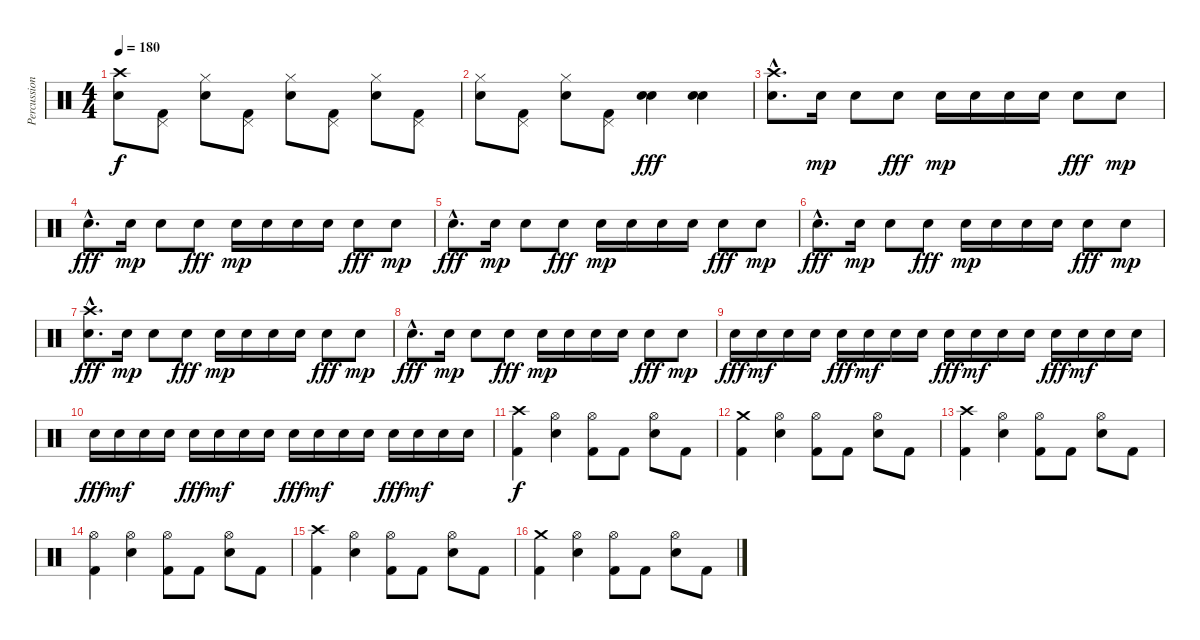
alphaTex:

\track ("Percussion" "Percussion") {instrument percussion}
\staff {score}
\articulation defaults
\ts (4 4)
\tempo 180
\clef neutral
\ks c
("Crash high (hit)" "Snare (hit) 2").8{dy f} ("Pedal Hi-Hat (hit)" "Kick (hit) 2").8 ("Hi-Hat (closed)" "Snare (hit) 2").8 ("Pedal Hi-Hat (hit)" "Kick (hit) 2").8 ("Hi-Hat (closed)" "Snare (hit) 2").8 ("Pedal Hi-Hat (hit)" "Kick (hit) 2").8 ("Hi-Hat (closed)" "Snare (hit) 2").8 ("Pedal Hi-Hat (hit)" "Kick (hit) 2").8 |
("Hi-Hat (closed)" "Snare (hit) 2").8 ("Pedal Hi-Hat (hit)" "Kick (hit) 2").8 ("Hi-Hat (closed)" "Snare (hit) 2").8 ("Pedal Hi-Hat (hit)" "Kick (hit) 2").8 ("Snare (hit) 2" "Electric Snare (hit)").4{dy fff} ("Snare (hit) 2" "Electric Snare (hit)").4 |
("Crash high (hit)"{hac} "Electric Snare (hit)"{hac}).8{d} "Electric Snare (hit)".16{dy mp} "Electric Snare (hit)".8 "Electric Snare (hit)".8{dy fff} "Electric Snare (hit)".16{dy mp} "Electric Snare (hit)".16 "Electric Snare (hit)".16 "Electric Snare (hit)".16 "Electric Snare (hit)".8{dy fff} "Electric Snare (hit)".8{dy mp} |
"Electric Snare (hit)"{hac}.8{d dy fff} "Electric Snare (hit)".16{dy mp} "Electric Snare (hit)".8 "Electric Snare (hit)".8{dy fff} "Electric Snare (hit)".16{dy mp} "Electric Snare (hit)".16 "Electric Snare (hit)".16 "Electric Snare (hit)".16 "Electric Snare (hit)".8{dy fff} "Electric Snare (hit)".8{dy mp} |
"Electric Snare (hit)"{hac}.8{d dy fff} "Electric Snare (hit)".16{dy mp} "Electric Snare (hit)".8 "Electric Snare (hit)".8{dy fff} "Electric Snare (hit)".16{dy mp} "Electric Snare (hit)".16 "Electric Snare (hit)".16 "Electric Snare (hit)".16 "Electric Snare (hit)".8{dy fff} "Electric Snare (hit)".8{dy mp} |
"Electric Snare (hit)"{hac}.8{d dy fff} "Electric Snare (hit)".16{dy mp} "Electric Snare (hit)".8 "Electric Snare (hit)".8{dy fff} "Electric Snare (hit)".16{dy mp} "Electric Snare (hit)".16 "Electric Snare (hit)".16 "Electric Snare (hit)".16 "Electric Snare (hit)".8{dy fff} "Electric Snare (hit)".8{dy mp} |
("Crash high (hit)"{hac} "Electric Snare (hit)"{hac}).8{d dy fff} "Electric Snare (hit)".16{dy mp} "Electric Snare (hit)".8 "Electric Snare (hit)".8{dy fff} "Electric Snare (hit)".16{dy mp} "Electric Snare (hit)".16 "Electric Snare (hit)".16 "Electric Snare (hit)".16 "Electric Snare (hit)".8{dy fff} "Electric Snare (hit)".8{dy mp} |
"Electric Snare (hit)"{hac}.8{d dy fff} "Electric Snare (hit)".16{dy mp} "Electric Snare (hit)".8 "Electric Snare (hit)".8{dy fff} "Electric Snare (hit)".16{dy mp} "Electric Snare (hit)".16 "Electric Snare (hit)".16 "Electric Snare (hit)".16 "Electric Snare (hit)".8{dy fff} "Electric Snare (hit)".8{dy mp} |
"Electric Snare (hit)".16{dy fff volume 16} "Electric Snare (hit)".16{dy mf} "Electric Snare (hit)".16 "Electric Snare (hit)".16 "Electric Snare (hit)".16{dy fff} "Electric Snare (hit)".16{dy mf} "Electric Snare (hit)".16 "Electric Snare (hit)".16 "Electric Snare (hit)".16{dy fff} "Electric Snare (hit)".16{dy mf} "Electric Snare (hit)".16 "Electric Snare (hit)".16 "Electric Snare (hit)".16{dy fff} "Electric Snare (hit)".16{dy mf} "Electric Snare (hit)".16 "Electric Snare (hit)".16 |
"Electric Snare (hit)".16{dy fff} "Electric Snare (hit)".16{dy mf} "Electric Snare (hit)".16 "Electric Snare (hit)".16 "Electric Snare (hit)".16{dy fff} "Electric Snare (hit)".16{dy mf} "Electric Snare (hit)".16 "Electric Snare (hit)".16 "Electric Snare (hit)".16{dy fff} "Electric Snare (hit)".16{dy mf} "Electric Snare (hit)".16 "Electric Snare (hit)".16 "Electric Snare (hit)".16{dy fff} "Electric Snare (hit)".16{dy mf} "Electric Snare (hit)".16 "Electric Snare (hit)".16 |
("Crash high (hit)" "Kick (hit) 2").4{dy f volume 13} ("Hi-Hat (open)" "Electric Snare (hit)").4 ("Hi-Hat (open)" "Kick (hit) 2").8 "Kick (hit) 2".8 ("Hi-Hat (open)" "Electric Snare (hit)").8 "Kick (hit) 2".8 |
("Crash medium (hit)" "Kick (hit) 2").4 ("Hi-Hat (open)" "Electric Snare (hit)").4 ("Hi-Hat (open)" "Kick (hit) 2").8 "Kick (hit) 2".8 ("Hi-Hat (open)" "Electric Snare (hit)").8 "Kick (hit) 2".8 |
("Crash high (hit)" "Kick (hit) 2").4 ("Hi-Hat (open)" "Electric Snare (hit)").4 ("Hi-Hat (open)" "Kick (hit) 2").8 "Kick (hit) 2".8 ("Hi-Hat (open)" "Electric Snare (hit)").8 "Kick (hit) 2".8 |
("Hi-Hat (open)" "Kick (hit) 2").4 ("Hi-Hat (open)" "Electric Snare (hit)").4 ("Hi-Hat (open)" "Kick (hit) 2").8 "Kick (hit) 2".8 ("Hi-Hat (open)" "Electric Snare (hit)").8 "Kick (hit) 2".8 |
("Crash high (hit)" "Kick (hit) 2").4 ("Hi-Hat (open)" "Electric Snare (hit)").4 ("Hi-Hat (open)" "Kick (hit) 2").8 "Kick (hit) 2".8 ("Hi-Hat (open)" "Electric Snare (hit)").8 "Kick (hit) 2".8 |
("Crash medium (hit)" "Kick (hit) 2").4 ("Hi-Hat (open)" "Electric Snare (hit)").4 ("Hi-Hat (open)" "Kick (hit) 2").8 "Kick (hit) 2".8 ("Hi-Hat (open)" "Electric Snare (hit)").8 "Kick (hit) 2".8
